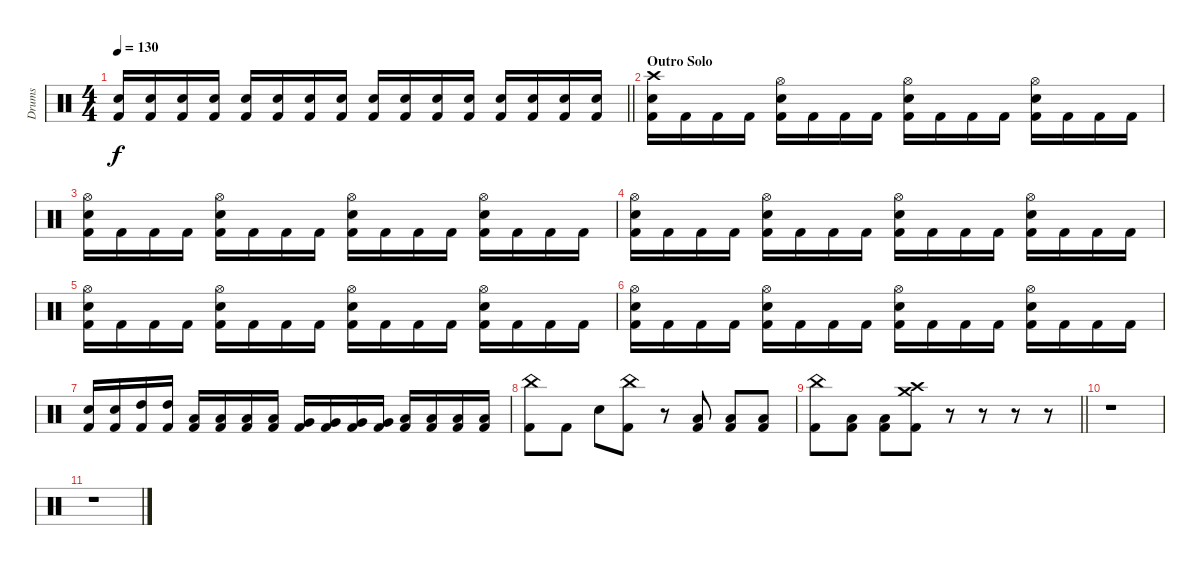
\track ("Drums" "Drums") {instrument percussion}
\staff {score}
\articulation defaults
\ts (4 4)
\tempo 130
\clef neutral
\barLineRight lightlight
\ks c
("Snare (hit) 2" "Kick (hit) 2").16{dy f} ("Snare (hit) 2" "Kick (hit) 2").16 ("Snare (hit) 2" "Kick (hit) 2").16 ("Snare (hit) 2" "Kick (hit) 2").16 ("Snare (hit) 2" "Kick (hit) 2").16 ("Snare (hit) 2" "Kick (hit) 2").16 ("Snare (hit) 2" "Kick (hit) 2").16 ("Snare (hit) 2" "Kick (hit) 2").16 ("Snare (hit) 2" "Kick (hit) 2").16 ("Snare (hit) 2" "Kick (hit) 2").16 ("Snare (hit) 2" "Kick (hit) 2").16 ("Snare (hit) 2" "Kick (hit) 2").16 ("Snare (hit) 2" "Kick (hit) 2").16 ("Snare (hit) 2" "Kick (hit) 2").16 ("Snare (hit) 2" "Kick (hit) 2").16 ("Snare (hit) 2" "Kick (hit) 2").16 |
\section ("" "Outro Solo")
("Crash high (hit)" "Snare (hit) 2" "Kick (hit) 2").16 "Kick (hit) 2".16 "Kick (hit) 2".16 "Kick (hit) 2".16 ("Hi-Hat (open)" "Snare (hit) 2" "Kick (hit) 2").16 "Kick (hit) 2".16 "Kick (hit) 2".16 "Kick (hit) 2".16 ("Hi-Hat (open)" "Snare (hit) 2" "Kick (hit) 2").16 "Kick (hit) 2".16 "Kick (hit) 2".16 "Kick (hit) 2".16 ("Hi-Hat (open)" "Snare (hit) 2" "Kick (hit) 2").16 "Kick (hit) 2".16 "Kick (hit) 2".16 "Kick (hit) 2".16 |
("Hi-Hat (open)" "Snare (hit) 2" "Kick (hit) 2").16 "Kick (hit) 2".16 "Kick (hit) 2".16 "Kick (hit) 2".16 ("Hi-Hat (open)" "Snare (hit) 2" "Kick (hit) 2").16 "Kick (hit) 2".16 "Kick (hit) 2".16 "Kick (hit) 2".16 ("Hi-Hat (open)" "Snare (hit) 2" "Kick (hit) 2").16 "Kick (hit) 2".16 "Kick (hit) 2".16 "Kick (hit) 2".16 ("Hi-Hat (open)" "Snare (hit) 2" "Kick (hit) 2").16 "Kick (hit) 2".16 "Kick (hit) 2".16 "Kick (hit) 2".16 |
("Hi-Hat (open)" "Snare (hit) 2" "Kick (hit) 2").16 "Kick (hit) 2".16 "Kick (hit) 2".16 "Kick (hit) 2".16 ("Hi-Hat (open)" "Snare (hit) 2" "Kick (hit) 2").16 "Kick (hit) 2".16 "Kick (hit) 2".16 "Kick (hit) 2".16 ("Hi-Hat (open)" "Snare (hit) 2" "Kick (hit) 2").16 "Kick (hit) 2".16 "Kick (hit) 2".16 "Kick (hit) 2".16 ("Hi-Hat (open)" "Snare (hit) 2" "Kick (hit) 2").16 "Kick (hit) 2".16 "Kick (hit) 2".16 "Kick (hit) 2".16 |
("Hi-Hat (open)" "Snare (hit) 2" "Kick (hit) 2").16 "Kick (hit) 2".16 "Kick (hit) 2".16 "Kick (hit) 2".16 ("Hi-Hat (open)" "Snare (hit) 2" "Kick (hit) 2").16 "Kick (hit) 2".16 "Kick (hit) 2".16 "Kick (hit) 2".16 ("Hi-Hat (open)" "Snare (hit) 2" "Kick (hit) 2").16 "Kick (hit) 2".16 "Kick (hit) 2".16 "Kick (hit) 2".16 ("Hi-Hat (open)" "Snare (hit) 2" "Kick (hit) 2").16 "Kick (hit) 2".16 "Kick (hit) 2".16 "Kick (hit) 2".16 |
("Hi-Hat (open)" "Snare (hit) 2" "Kick (hit) 2").16 "Kick (hit) 2".16 "Kick (hit) 2".16 "Kick (hit) 2".16 ("Hi-Hat (open)" "Snare (hit) 2" "Kick (hit) 2").16 "Kick (hit) 2".16 "Kick (hit) 2".16 "Kick (hit) 2".16 ("Hi-Hat (open)" "Snare (hit) 2" "Kick (hit) 2").16 "Kick (hit) 2".16 "Kick (hit) 2".16 "Kick (hit) 2".16 ("Hi-Hat (open)" "Snare (hit) 2" "Kick (hit) 2").16 "Kick (hit) 2".16 "Kick (hit) 2".16 "Kick (hit) 2".16 |
("Snare (hit) 2" "Kick (hit) 2").16 ("Snare (hit) 2" "Kick (hit) 2").16 ("High Tom (hit)" "Kick (hit) 2").16 ("High Tom (hit)" "Kick (hit) 2").16 ("Low Tom (hit)" "Kick (hit) 2").16 ("Low Tom (hit)" "Kick (hit) 2").16 ("Low Tom (hit)" "Kick (hit) 2").16 ("Low Tom (hit)" "Kick (hit) 2").16 ("Very Low Tom (hit)" "Kick (hit) 2").16 ("Very Low Tom (hit)" "Kick (hit) 2").16 ("Very Low Tom (hit)" "Kick (hit) 2").16 ("Very Low Tom (hit)" "Kick (hit) 2").16 ("Low Floor Tom (hit)" "Kick (hit) 2").16 ("Low Floor Tom (hit)" "Kick (hit) 2").16 ("Low Floor Tom (hit)" "Kick (hit) 2").16 ("Low Floor Tom (hit)" "Kick (hit) 2").16 |
("China (hit)" "Kick (hit) 2").8 "Kick (hit) 2".8 "Snare (hit) 2".8 ("China (hit)" "Kick (hit) 2").8 r.8 ("Low Floor Tom (hit)" "Kick (hit) 2").8 ("Low Floor Tom (hit)" "Kick (hit) 2").8 ("Low Floor Tom (hit)" "Kick (hit) 2").8 |
\barLineRight lightlight
("China (hit)" "Kick (hit) 2").8 ("Low Floor Tom (hit)" "Kick (hit) 2").8 ("Low Floor Tom (hit)" "Kick (hit) 2").8 ("Crash medium (hit)" "Crash high (hit)" "Kick (hit) 2").8 r.8 r.8 r.8 r.8 |
r.1 |
r.1
